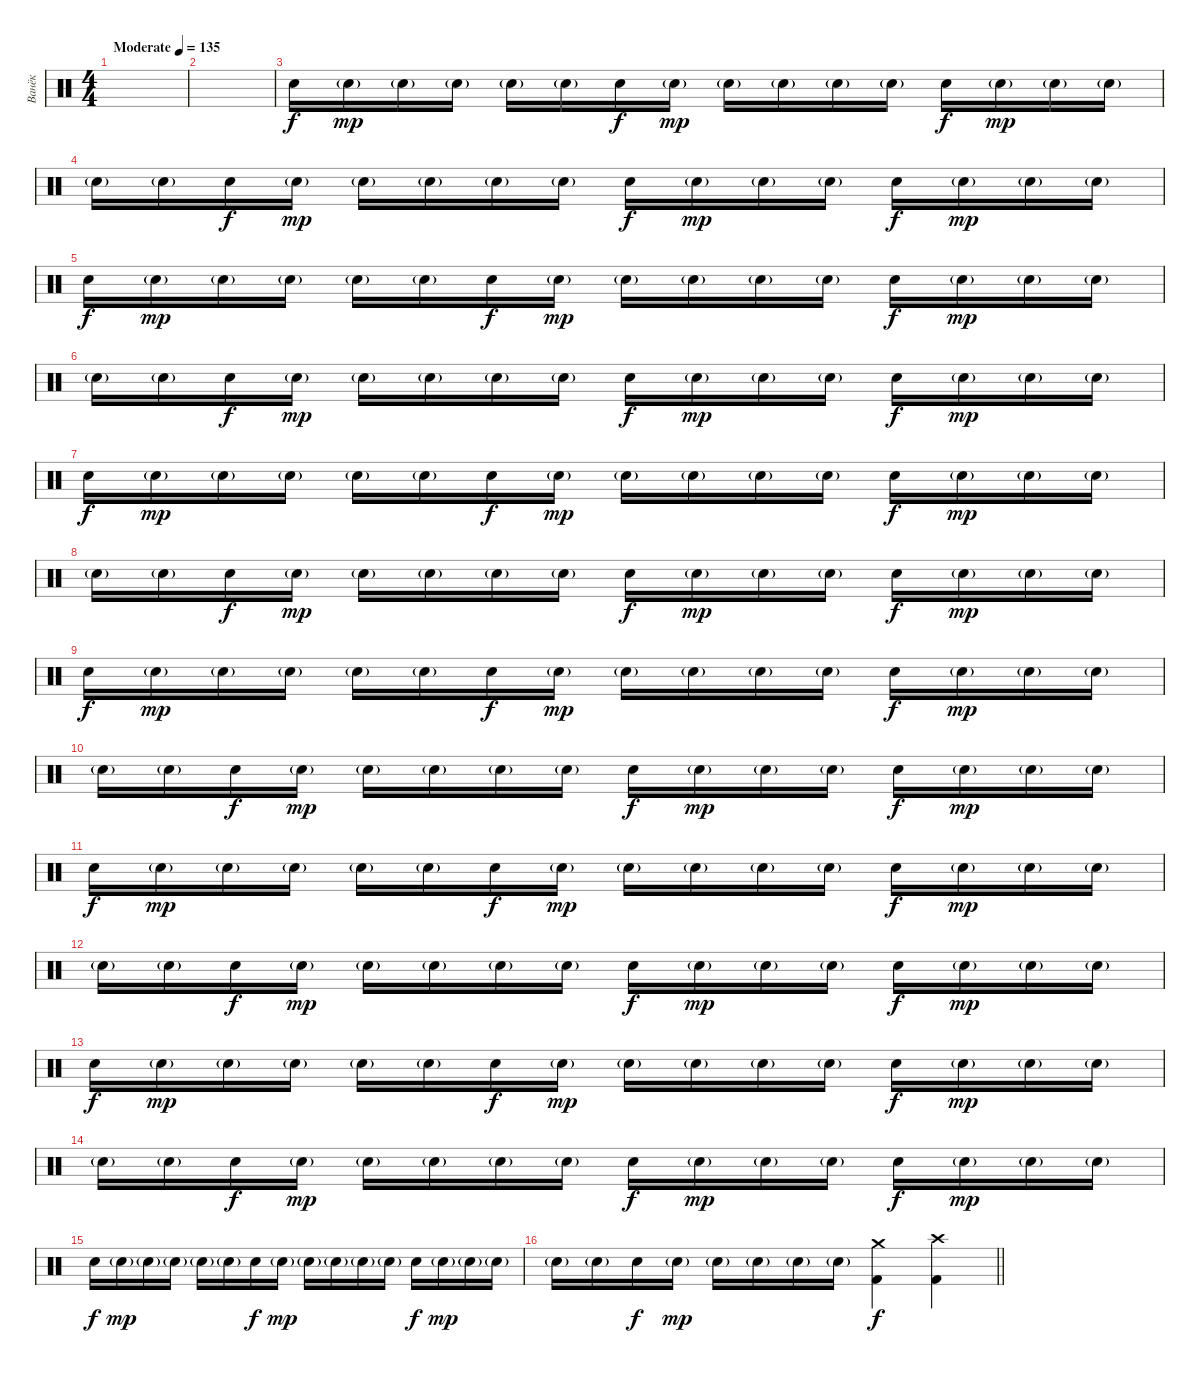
\track ("Ванёк" "Ванёк") {instrument percussion}
\staff {score}
\articulation defaults
\ts (4 4)
\tempo (135 "Moderate")
\clef neutral
\ks c
|
|
"Snare (hit) 2".16 "Snare (hit) 2"{g}.16{dy mp} "Snare (hit) 2"{g}.16 "Snare (hit) 2"{g}.16 "Snare (hit) 2"{g}.16 "Snare (hit) 2"{g}.16 "Snare (hit) 2".16{dy f} "Snare (hit) 2"{g}.16{dy mp} "Snare (hit) 2"{g}.16 "Snare (hit) 2"{g}.16 "Snare (hit) 2"{g}.16 "Snare (hit) 2"{g}.16 "Snare (hit) 2".16{dy f} "Snare (hit) 2"{g}.16{dy mp} "Snare (hit) 2"{g}.16 "Snare (hit) 2"{g}.16 |
"Snare (hit) 2"{g}.16 "Snare (hit) 2"{g}.16 "Snare (hit) 2".16{dy f} "Snare (hit) 2"{g}.16{dy mp} "Snare (hit) 2"{g}.16 "Snare (hit) 2"{g}.16 "Snare (hit) 2"{g}.16 "Snare (hit) 2"{g}.16 "Snare (hit) 2".16{dy f} "Snare (hit) 2"{g}.16{dy mp} "Snare (hit) 2"{g}.16 "Snare (hit) 2"{g}.16 "Snare (hit) 2".16{dy f} "Snare (hit) 2"{g}.16{dy mp} "Snare (hit) 2"{g}.16 "Snare (hit) 2"{g}.16 |
"Snare (hit) 2".16{dy f} "Snare (hit) 2"{g}.16{dy mp} "Snare (hit) 2"{g}.16 "Snare (hit) 2"{g}.16 "Snare (hit) 2"{g}.16 "Snare (hit) 2"{g}.16 "Snare (hit) 2".16{dy f} "Snare (hit) 2"{g}.16{dy mp} "Snare (hit) 2"{g}.16 "Snare (hit) 2"{g}.16 "Snare (hit) 2"{g}.16 "Snare (hit) 2"{g}.16 "Snare (hit) 2".16{dy f} "Snare (hit) 2"{g}.16{dy mp} "Snare (hit) 2"{g}.16 "Snare (hit) 2"{g}.16 |
"Snare (hit) 2"{g}.16 "Snare (hit) 2"{g}.16 "Snare (hit) 2".16{dy f} "Snare (hit) 2"{g}.16{dy mp} "Snare (hit) 2"{g}.16 "Snare (hit) 2"{g}.16 "Snare (hit) 2"{g}.16 "Snare (hit) 2"{g}.16 "Snare (hit) 2".16{dy f} "Snare (hit) 2"{g}.16{dy mp} "Snare (hit) 2"{g}.16 "Snare (hit) 2"{g}.16 "Snare (hit) 2".16{dy f} "Snare (hit) 2"{g}.16{dy mp} "Snare (hit) 2"{g}.16 "Snare (hit) 2"{g}.16 |
"Snare (hit) 2".16{dy f} "Snare (hit) 2"{g}.16{dy mp} "Snare (hit) 2"{g}.16 "Snare (hit) 2"{g}.16 "Snare (hit) 2"{g}.16 "Snare (hit) 2"{g}.16 "Snare (hit) 2".16{dy f} "Snare (hit) 2"{g}.16{dy mp} "Snare (hit) 2"{g}.16 "Snare (hit) 2"{g}.16 "Snare (hit) 2"{g}.16 "Snare (hit) 2"{g}.16 "Snare (hit) 2".16{dy f} "Snare (hit) 2"{g}.16{dy mp} "Snare (hit) 2"{g}.16 "Snare (hit) 2"{g}.16 |
"Snare (hit) 2"{g}.16 "Snare (hit) 2"{g}.16 "Snare (hit) 2".16{dy f} "Snare (hit) 2"{g}.16{dy mp} "Snare (hit) 2"{g}.16 "Snare (hit) 2"{g}.16 "Snare (hit) 2"{g}.16 "Snare (hit) 2"{g}.16 "Snare (hit) 2".16{dy f} "Snare (hit) 2"{g}.16{dy mp} "Snare (hit) 2"{g}.16 "Snare (hit) 2"{g}.16 "Snare (hit) 2".16{dy f} "Snare (hit) 2"{g}.16{dy mp} "Snare (hit) 2"{g}.16 "Snare (hit) 2"{g}.16 |
"Snare (hit) 2".16{dy f} "Snare (hit) 2"{g}.16{dy mp} "Snare (hit) 2"{g}.16 "Snare (hit) 2"{g}.16 "Snare (hit) 2"{g}.16 "Snare (hit) 2"{g}.16 "Snare (hit) 2".16{dy f} "Snare (hit) 2"{g}.16{dy mp} "Snare (hit) 2"{g}.16 "Snare (hit) 2"{g}.16 "Snare (hit) 2"{g}.16 "Snare (hit) 2"{g}.16 "Snare (hit) 2".16{dy f} "Snare (hit) 2"{g}.16{dy mp} "Snare (hit) 2"{g}.16 "Snare (hit) 2"{g}.16 |
"Snare (hit) 2"{g}.16 "Snare (hit) 2"{g}.16 "Snare (hit) 2".16{dy f} "Snare (hit) 2"{g}.16{dy mp} "Snare (hit) 2"{g}.16 "Snare (hit) 2"{g}.16 "Snare (hit) 2"{g}.16 "Snare (hit) 2"{g}.16 "Snare (hit) 2".16{dy f} "Snare (hit) 2"{g}.16{dy mp} "Snare (hit) 2"{g}.16 "Snare (hit) 2"{g}.16 "Snare (hit) 2".16{dy f} "Snare (hit) 2"{g}.16{dy mp} "Snare (hit) 2"{g}.16 "Snare (hit) 2"{g}.16 |
"Snare (hit) 2".16{dy f} "Snare (hit) 2"{g}.16{dy mp} "Snare (hit) 2"{g}.16 "Snare (hit) 2"{g}.16 "Snare (hit) 2"{g}.16 "Snare (hit) 2"{g}.16 "Snare (hit) 2".16{dy f} "Snare (hit) 2"{g}.16{dy mp} "Snare (hit) 2"{g}.16 "Snare (hit) 2"{g}.16 "Snare (hit) 2"{g}.16 "Snare (hit) 2"{g}.16 "Snare (hit) 2".16{dy f} "Snare (hit) 2"{g}.16{dy mp} "Snare (hit) 2"{g}.16 "Snare (hit) 2"{g}.16 |
"Snare (hit) 2"{g}.16 "Snare (hit) 2"{g}.16 "Snare (hit) 2".16{dy f} "Snare (hit) 2"{g}.16{dy mp} "Snare (hit) 2"{g}.16 "Snare (hit) 2"{g}.16 "Snare (hit) 2"{g}.16 "Snare (hit) 2"{g}.16 "Snare (hit) 2".16{dy f} "Snare (hit) 2"{g}.16{dy mp} "Snare (hit) 2"{g}.16 "Snare (hit) 2"{g}.16 "Snare (hit) 2".16{dy f} "Snare (hit) 2"{g}.16{dy mp} "Snare (hit) 2"{g}.16 "Snare (hit) 2"{g}.16 |
"Snare (hit) 2".16{dy f} "Snare (hit) 2"{g}.16{dy mp} "Snare (hit) 2"{g}.16 "Snare (hit) 2"{g}.16 "Snare (hit) 2"{g}.16 "Snare (hit) 2"{g}.16 "Snare (hit) 2".16{dy f} "Snare (hit) 2"{g}.16{dy mp} "Snare (hit) 2"{g}.16 "Snare (hit) 2"{g}.16 "Snare (hit) 2"{g}.16 "Snare (hit) 2"{g}.16 "Snare (hit) 2".16{dy f} "Snare (hit) 2"{g}.16{dy mp} "Snare (hit) 2"{g}.16 "Snare (hit) 2"{g}.16 |
"Snare (hit) 2"{g}.16 "Snare (hit) 2"{g}.16 "Snare (hit) 2".16{dy f} "Snare (hit) 2"{g}.16{dy mp} "Snare (hit) 2"{g}.16 "Snare (hit) 2"{g}.16 "Snare (hit) 2"{g}.16 "Snare (hit) 2"{g}.16 "Snare (hit) 2".16{dy f} "Snare (hit) 2"{g}.16{dy mp} "Snare (hit) 2"{g}.16 "Snare (hit) 2"{g}.16 "Snare (hit) 2".16{dy f} "Snare (hit) 2"{g}.16{dy mp} "Snare (hit) 2"{g}.16 "Snare (hit) 2"{g}.16 |
"Snare (hit) 2".16{dy f} "Snare (hit) 2"{g}.16{dy mp} "Snare (hit) 2"{g}.16 "Snare (hit) 2"{g}.16 "Snare (hit) 2"{g}.16 "Snare (hit) 2"{g}.16 "Snare (hit) 2".16{dy f} "Snare (hit) 2"{g}.16{dy mp} "Snare (hit) 2"{g}.16 "Snare (hit) 2"{g}.16 "Snare (hit) 2"{g}.16 "Snare (hit) 2"{g}.16 "Snare (hit) 2".16{dy f} "Snare (hit) 2"{g}.16{dy mp} "Snare (hit) 2"{g}.16 "Snare (hit) 2"{g}.16 |
\barLineRight lightlight "Snare (hit) 2"{g}.16 "Snare (hit) 2"{g}.16 "Snare (hit) 2".16{dy f} "Snare (hit) 2"{g}.16{dy mp} "Snare (hit) 2"{g}.16 "Snare (hit) 2"{g}.16 "Snare (hit) 2"{g}.16 "Snare (hit) 2"{g}.16
("Crash medium (hit)" "Kick (hit) 2").4{dy f} ("Crash high (hit)" "Kick (hit) 2").4
